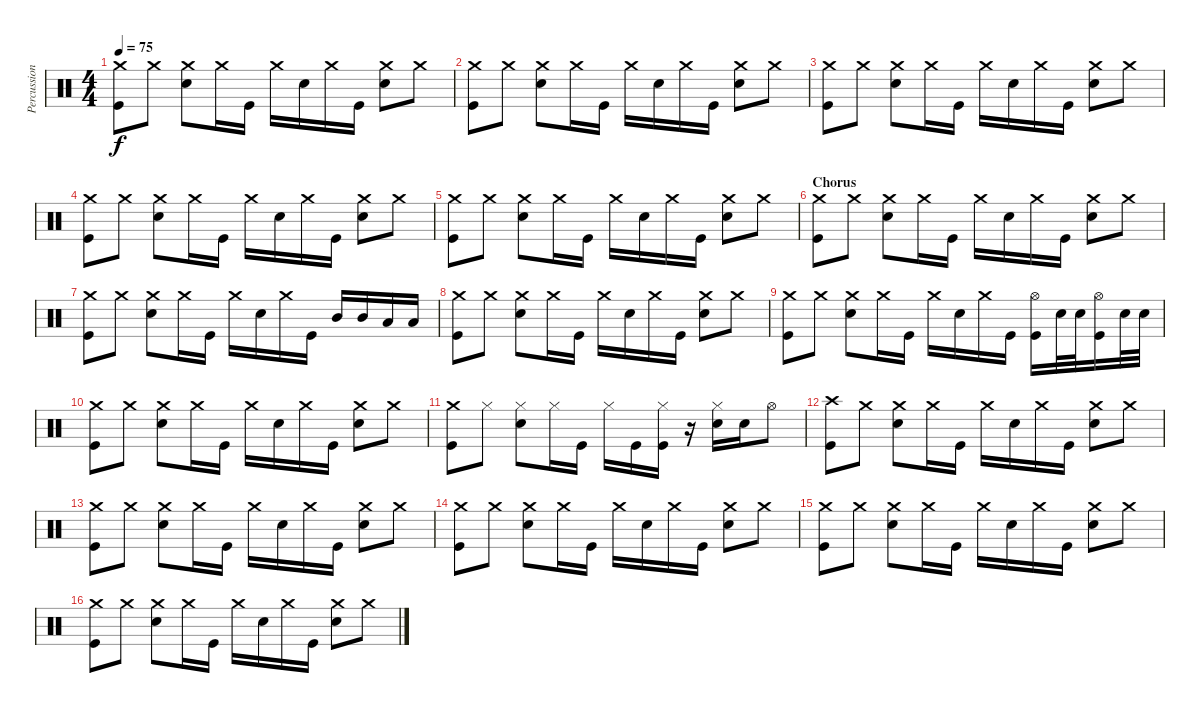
\track ("Percussion" "Percussion") {instrument percussion}
\staff {score}
\articulation defaults
\ts (4 4)
\tempo 75
\clef neutral
\ks c
("Crash medium (hit)" "Kick (hit)").8{dy f} "Crash medium (hit)".8 ("Crash medium (hit)" "Snare (hit) 2").8 "Crash medium (hit)".16 "Kick (hit)".16 "Crash medium (hit)".16 "Snare (hit) 2".16 "Crash medium (hit)".16 "Kick (hit)".16 ("Crash medium (hit)" "Snare (hit) 2").8 "Crash medium (hit)".8 |
("Crash medium (hit)" "Kick (hit)").8 "Crash medium (hit)".8 ("Crash medium (hit)" "Snare (hit) 2").8 "Crash medium (hit)".16 "Kick (hit)".16 "Crash medium (hit)".16 "Snare (hit) 2".16 "Crash medium (hit)".16 "Kick (hit)".16 ("Crash medium (hit)" "Snare (hit) 2").8 "Crash medium (hit)".8 |
("Crash medium (hit)" "Kick (hit)").8 "Crash medium (hit)".8 ("Crash medium (hit)" "Snare (hit) 2").8 "Crash medium (hit)".16 "Kick (hit)".16 "Crash medium (hit)".16 "Snare (hit) 2".16 "Crash medium (hit)".16 "Kick (hit)".16 ("Crash medium (hit)" "Snare (hit) 2").8 "Crash medium (hit)".8 |
("Crash medium (hit)" "Kick (hit)").8 "Crash medium (hit)".8 ("Crash medium (hit)" "Snare (hit) 2").8 "Crash medium (hit)".16 "Kick (hit)".16 "Crash medium (hit)".16 "Snare (hit) 2".16 "Crash medium (hit)".16 "Kick (hit)".16 ("Crash medium (hit)" "Snare (hit) 2").8 "Crash medium (hit)".8 |
("Crash medium (hit)" "Kick (hit)").8 "Crash medium (hit)".8 ("Crash medium (hit)" "Snare (hit) 2").8 "Crash medium (hit)".16 "Kick (hit)".16 "Crash medium (hit)".16 "Snare (hit) 2".16 "Crash medium (hit)".16 "Kick (hit)".16 ("Crash medium (hit)" "Snare (hit) 2").8 "Crash medium (hit)".8 |
\section ("" "Chorus")
("Crash medium (hit)" "Kick (hit)").8 "Crash medium (hit)".8 ("Crash medium (hit)" "Snare (hit) 2").8 "Crash medium (hit)".16 "Kick (hit)".16 "Crash medium (hit)".16 "Snare (hit) 2".16 "Crash medium (hit)".16 "Kick (hit)".16 ("Crash medium (hit)" "Snare (hit) 2").8 "Crash medium (hit)".8 |
("Crash medium (hit)" "Kick (hit)").8 "Crash medium (hit)".8 ("Crash medium (hit)" "Snare (hit) 2").8 "Crash medium (hit)".16 "Kick (hit)".16 "Crash medium (hit)".16 "Snare (hit) 2".16 "Crash medium (hit)".16 "Kick (hit)".16 "Mid Tom (hit)".16 "Mid Tom (hit)".16 "Low Tom (hit)".16 "Low Tom (hit)".16 |
("Crash medium (hit)" "Kick (hit)").8 "Crash medium (hit)".8 ("Crash medium (hit)" "Snare (hit) 2").8 "Crash medium (hit)".16 "Kick (hit)".16 "Crash medium (hit)".16 "Snare (hit) 2".16 "Crash medium (hit)".16 "Kick (hit)".16 ("Crash medium (hit)" "Snare (hit) 2").8 "Crash medium (hit)".8 |
("Crash medium (hit)" "Kick (hit)").8 "Crash medium (hit)".8 ("Crash medium (hit)" "Snare (hit) 2").8 "Crash medium (hit)".16 "Kick (hit)".16 "Crash medium (hit)".16 "Snare (hit) 2".16 "Crash medium (hit)".16 "Kick (hit)".16 ("Hi-Hat (open)" "Kick (hit)").16 "Snare (hit) 2".32 "Snare (hit) 2".32 ("Hi-Hat (open)" "Kick (hit)").16 "Snare (hit) 2".32 "Snare (hit) 2".32 |
("Crash medium (hit)" "Kick (hit)").8 "Crash medium (hit)".8 ("Crash medium (hit)" "Snare (hit) 2").8 "Crash medium (hit)".16 "Kick (hit)".16 "Crash medium (hit)".16 "Snare (hit) 2".16 "Crash medium (hit)".16 "Kick (hit)".16 ("Crash medium (hit)" "Snare (hit) 2").8 "Crash medium (hit)".8 |
("Crash medium (hit)" "Kick (hit)").8 "Hi-Hat (closed)".8 ("Hi-Hat (closed)" "Snare (hit) 2").8 "Hi-Hat (closed)".16 "Kick (hit)".16 "Hi-Hat (closed)".16 "Kick (hit)".16 ("Hi-Hat (closed)" "Kick (hit)").16 r.16 ("Hi-Hat (closed)" "Snare (hit) 2").16 "Snare (hit) 2".16 "Hi-Hat (open)".8 |
("Crash high (hit)" "Kick (hit)").8 "Crash medium (hit)".8 ("Crash medium (hit)" "Snare (hit) 2").8 "Crash medium (hit)".16 "Kick (hit)".16 "Crash medium (hit)".16 "Snare (hit) 2".16 "Crash medium (hit)".16 "Kick (hit)".16 ("Crash medium (hit)" "Snare (hit) 2").8 "Crash medium (hit)".8 |
("Crash medium (hit)" "Kick (hit)").8 "Crash medium (hit)".8 ("Crash medium (hit)" "Snare (hit) 2").8 "Crash medium (hit)".16 "Kick (hit)".16 "Crash medium (hit)".16 "Snare (hit) 2".16 "Crash medium (hit)".16 "Kick (hit)".16 ("Crash medium (hit)" "Snare (hit) 2").8 "Crash medium (hit)".8 |
("Crash medium (hit)" "Kick (hit)").8 "Crash medium (hit)".8 ("Crash medium (hit)" "Snare (hit) 2").8 "Crash medium (hit)".16 "Kick (hit)".16 "Crash medium (hit)".16 "Snare (hit) 2".16 "Crash medium (hit)".16 "Kick (hit)".16 ("Crash medium (hit)" "Snare (hit) 2").8 "Crash medium (hit)".8 |
("Crash medium (hit)" "Kick (hit)").8 "Crash medium (hit)".8 ("Crash medium (hit)" "Snare (hit) 2").8 "Crash medium (hit)".16 "Kick (hit)".16 "Crash medium (hit)".16 "Snare (hit) 2".16 "Crash medium (hit)".16 "Kick (hit)".16 ("Crash medium (hit)" "Snare (hit) 2").8 "Crash medium (hit)".8 |
("Crash medium (hit)" "Kick (hit)").8 "Crash medium (hit)".8 ("Crash medium (hit)" "Snare (hit) 2").8 "Crash medium (hit)".16 "Kick (hit)".16 "Crash medium (hit)".16 "Snare (hit) 2".16 "Crash medium (hit)".16 "Kick (hit)".16 ("Crash medium (hit)" "Snare (hit) 2").8 "Crash medium (hit)".8
